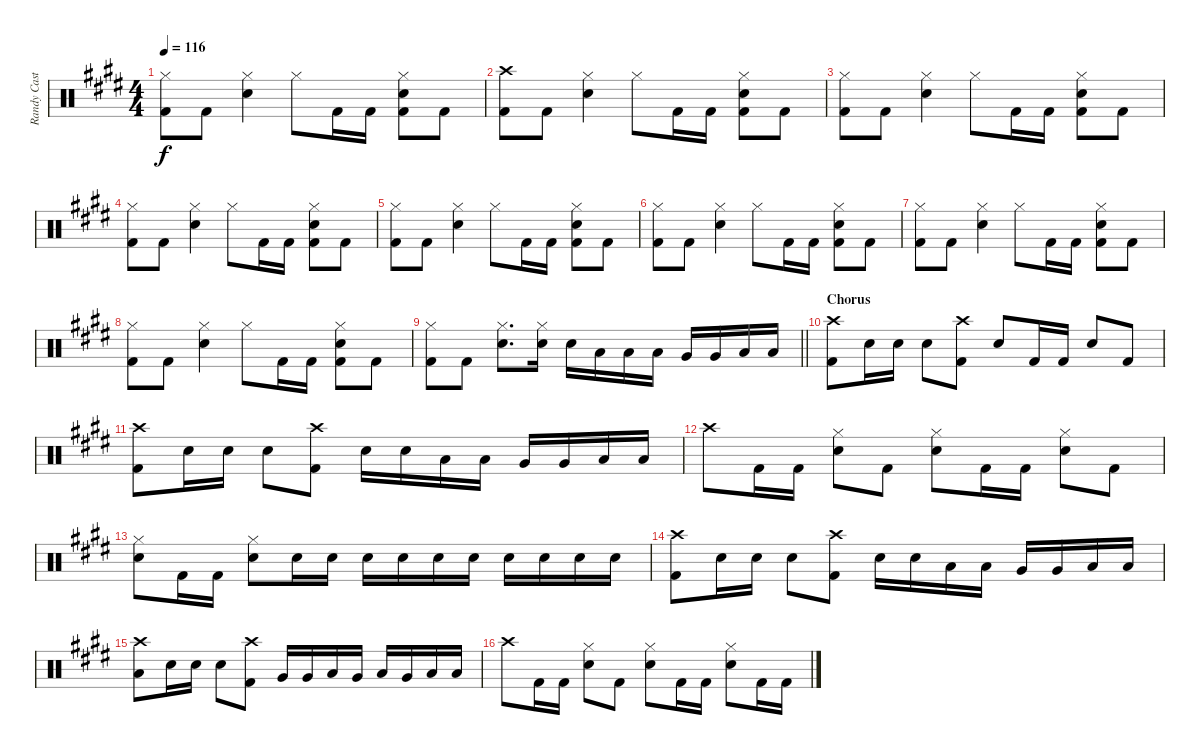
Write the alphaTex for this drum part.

\track ("Randy Castillo" "Randy Cast") {instrument percussion}
\staff {score}
\articulation defaults
\ts (4 4)
\tempo 116
\clef neutral
\ks e
("Hi-Hat (closed)" "Kick (hit) 2").8{dy f} "Kick (hit) 2".8 ("Hi-Hat (closed)" "Snare (hit) 2").4 "Hi-Hat (closed)".8 "Kick (hit) 2".16 "Kick (hit) 2".16 ("Hi-Hat (closed)" "Snare (hit) 2" "Kick (hit) 2").8 "Kick (hit) 2".8 |
("Kick (hit) 2" "Crash high (hit)").8 "Kick (hit) 2".8 ("Hi-Hat (closed)" "Snare (hit) 2").4 "Hi-Hat (closed)".8 "Kick (hit) 2".16 "Kick (hit) 2".16 ("Hi-Hat (closed)" "Snare (hit) 2" "Kick (hit) 2").8 "Kick (hit) 2".8 |
("Hi-Hat (closed)" "Kick (hit) 2").8 "Kick (hit) 2".8 ("Hi-Hat (closed)" "Snare (hit) 2").4 "Hi-Hat (closed)".8 "Kick (hit) 2".16 "Kick (hit) 2".16 ("Hi-Hat (closed)" "Snare (hit) 2" "Kick (hit) 2").8 "Kick (hit) 2".8 |
("Hi-Hat (closed)" "Kick (hit) 2").8 "Kick (hit) 2".8 ("Hi-Hat (closed)" "Snare (hit) 2").4 "Hi-Hat (closed)".8 "Kick (hit) 2".16 "Kick (hit) 2".16 ("Hi-Hat (closed)" "Snare (hit) 2" "Kick (hit) 2").8 "Kick (hit) 2".8 |
("Hi-Hat (closed)" "Kick (hit) 2").8 "Kick (hit) 2".8 ("Hi-Hat (closed)" "Snare (hit) 2").4 "Hi-Hat (closed)".8 "Kick (hit) 2".16 "Kick (hit) 2".16 ("Hi-Hat (closed)" "Snare (hit) 2" "Kick (hit) 2").8 "Kick (hit) 2".8 |
("Hi-Hat (closed)" "Kick (hit) 2").8 "Kick (hit) 2".8 ("Hi-Hat (closed)" "Snare (hit) 2").4 "Hi-Hat (closed)".8 "Kick (hit) 2".16 "Kick (hit) 2".16 ("Hi-Hat (closed)" "Snare (hit) 2" "Kick (hit) 2").8 "Kick (hit) 2".8 |
("Hi-Hat (closed)" "Kick (hit) 2").8 "Kick (hit) 2".8 ("Hi-Hat (closed)" "Snare (hit) 2").4 "Hi-Hat (closed)".8 "Kick (hit) 2".16 "Kick (hit) 2".16 ("Hi-Hat (closed)" "Snare (hit) 2" "Kick (hit) 2").8 "Kick (hit) 2".8 |
("Hi-Hat (closed)" "Kick (hit) 2").8 "Kick (hit) 2".8 ("Hi-Hat (closed)" "Snare (hit) 2").4 "Hi-Hat (closed)".8 "Kick (hit) 2".16 "Kick (hit) 2".16 ("Hi-Hat (closed)" "Snare (hit) 2" "Kick (hit) 2").8 "Kick (hit) 2".8 |
\barLineRight lightlight
("Hi-Hat (closed)" "Kick (hit) 2").8 "Kick (hit) 2".8 ("Hi-Hat (closed)" "Snare (hit) 2").8{d} ("Hi-Hat (closed)" "Snare (hit) 2").16 "Snare (hit) 2".16 "Low Tom (hit)".16 "Low Tom (hit)".16 "Low Tom (hit)".16 "Very Low Tom (hit)".16 "Very Low Tom (hit)".16 "Low Tom (hit)".16 "Low Tom (hit)".16 |
\section ("" "Chorus")
("Kick (hit) 2" "Crash high (hit)").8 "Snare (hit) 2".16 "Snare (hit) 2".16 "Snare (hit) 2".8 ("Kick (hit) 2" "Crash high (hit)").8 "Snare (hit) 2".8 "Kick (hit) 2".16 "Kick (hit) 2".16 "Snare (hit) 2".8 "Kick (hit) 2".8 |
("Kick (hit) 2" "Crash high (hit)").8 "Snare (hit) 2".16 "Snare (hit) 2".16 "Snare (hit) 2".8 ("Kick (hit) 2" "Crash high (hit)").8 "Snare (hit) 2".16 "Snare (hit) 2".16 "Low Tom (hit)".16 "Low Tom (hit)".16 "Very Low Tom (hit)".16 "Very Low Tom (hit)".16 "Low Floor Tom (hit)".16 "Low Floor Tom (hit)".16 |
"Crash high (hit)".8 "Kick (hit) 2".16 "Kick (hit) 2".16 ("Hi-Hat (closed)" "Snare (hit) 2").8 "Kick (hit) 2".8 ("Hi-Hat (closed)" "Snare (hit) 2").8 "Kick (hit) 2".16 "Kick (hit) 2".16 ("Hi-Hat (closed)" "Snare (hit) 2").8 "Kick (hit) 2".8 |
("Hi-Hat (closed)" "Snare (hit) 2").8 "Kick (hit) 2".16 "Kick (hit) 2".16 ("Hi-Hat (closed)" "Snare (hit) 2").8 "Snare (hit) 2".16 "Snare (hit) 2".16 "Snare (hit) 2".16 "Snare (hit) 2".16 "Snare (hit) 2".16 "Snare (hit) 2".16 "Snare (hit) 2".16 "Snare (hit) 2".16 "Snare (hit) 2".16 "Snare (hit) 2".16 |
("Kick (hit) 2" "Crash high (hit)").8 "Snare (hit) 2".16 "Snare (hit) 2".16 "Snare (hit) 2".8 ("Kick (hit) 2" "Crash high (hit)").8 "Snare (hit) 2".16 "Snare (hit) 2".16 "Low Tom (hit)".16 "Low Tom (hit)".16 "Very Low Tom (hit)".16 "Very Low Tom (hit)".16 "Low Floor Tom (hit)".16 "Low Floor Tom (hit)".16 |
("Low Tom (hit)" "Crash high (hit)").8 "Snare (hit) 2".16 "Snare (hit) 2".16 "Snare (hit) 2".8 ("Kick (hit) 2" "Crash high (hit)").8 "Very Low Tom (hit)".16 "Very Low Tom (hit)".16 "Low Tom (hit)".16 "Very Low Tom (hit)".16 "Low Tom (hit)".16 "Very Low Tom (hit)".16 "Low Floor Tom (hit)".16 "Low Floor Tom (hit)".16 |
"Crash high (hit)".8 "Kick (hit) 2".16 "Kick (hit) 2".16 ("Hi-Hat (closed)" "Snare (hit) 2").8 "Kick (hit) 2".8 ("Hi-Hat (closed)" "Snare (hit) 2").8 "Kick (hit) 2".16 "Kick (hit) 2".16 ("Hi-Hat (closed)" "Snare (hit) 2").8 "Kick (hit) 2".16 "Kick (hit) 2".16
